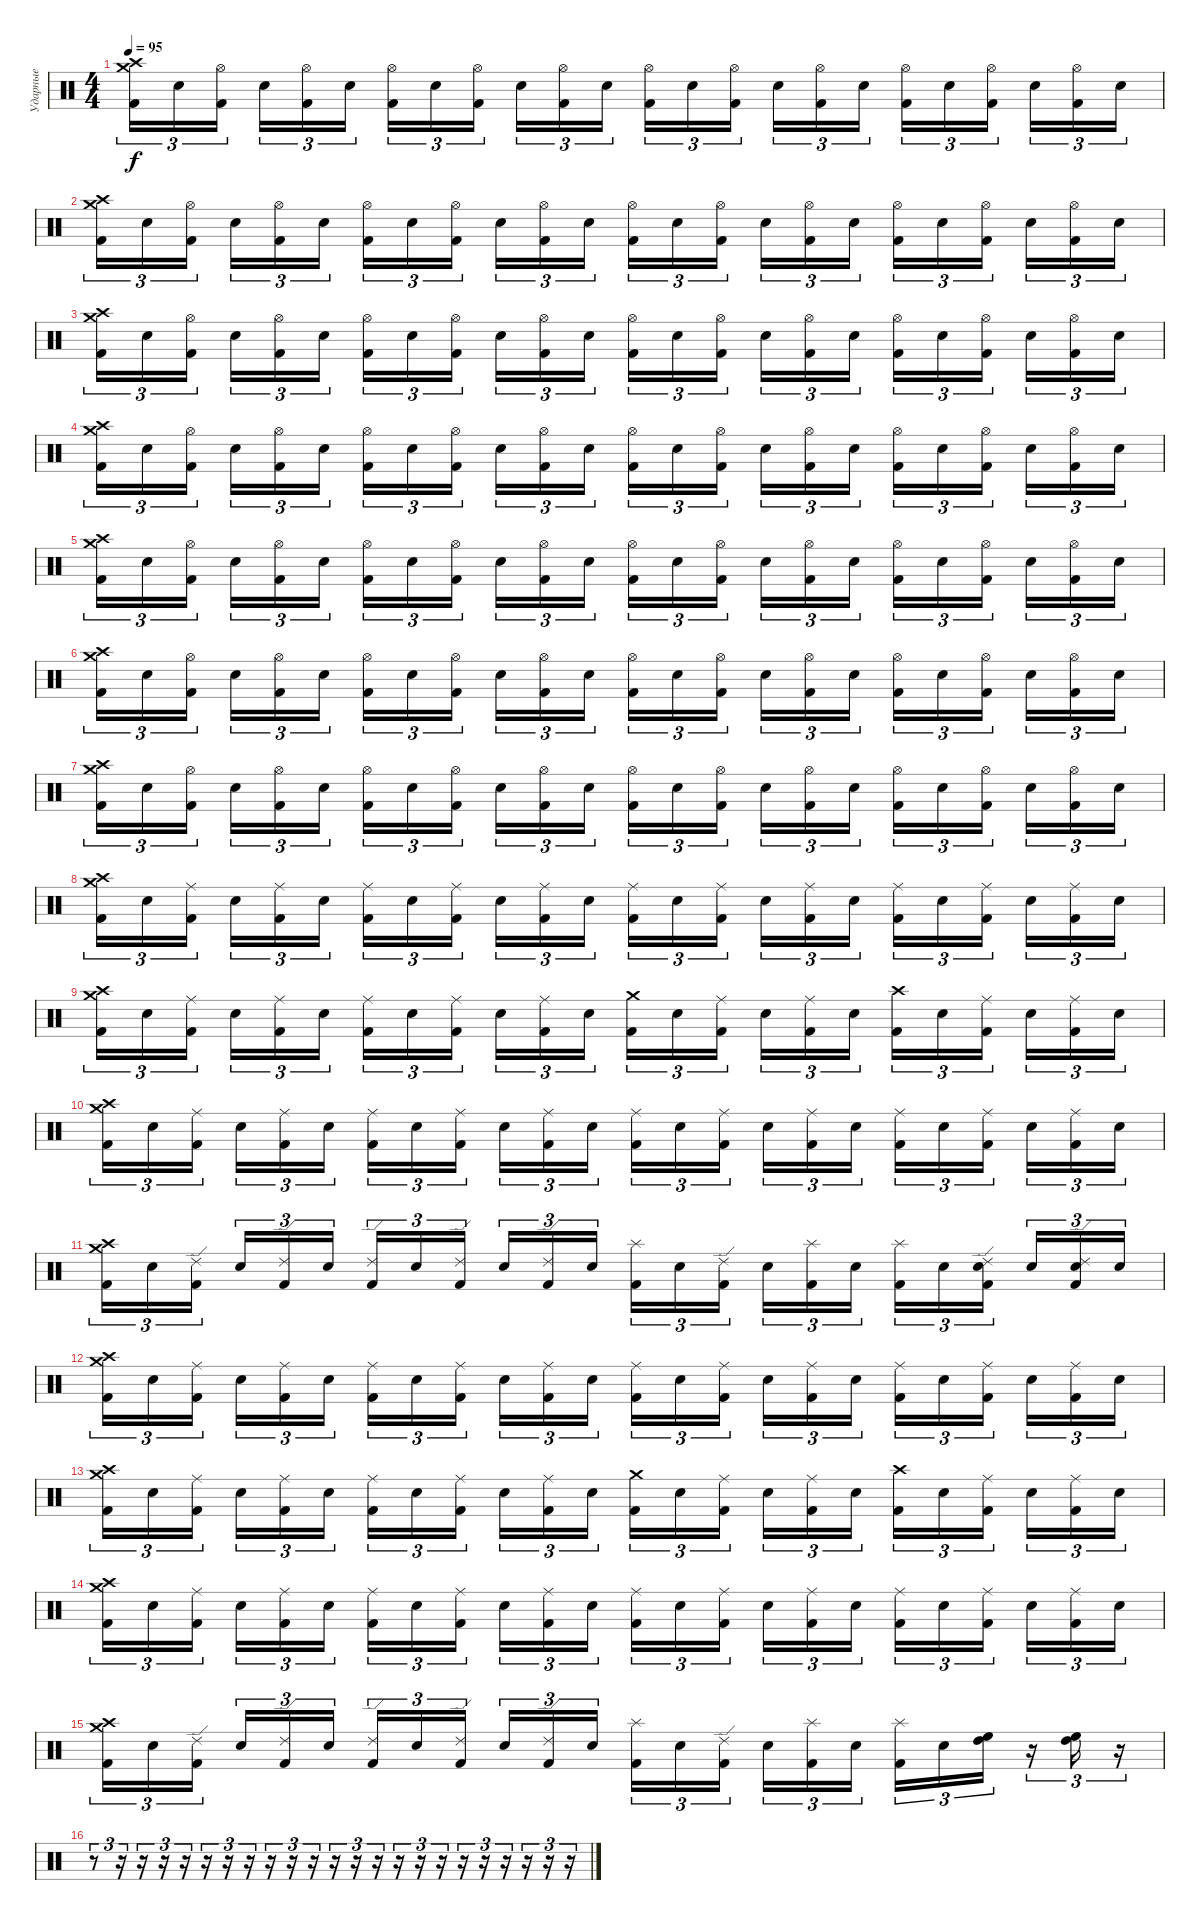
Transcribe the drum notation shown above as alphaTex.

\track ("Ударные" "Ударные") {instrument percussion}
\staff {score}
\articulation defaults
\ts (4 4)
\tempo 95
\clef neutral
\ks c
("Crash medium (hit)" "Crash high (hit)" "Kick (hit) 2").16{tu (3 2) dy f} "Electric Snare (hit)".16{tu (3 2)} ("Hi-Hat (open)" "Kick (hit) 2").16{tu (3 2) beam splitsecondary} "Electric Snare (hit)".16{tu (3 2)} ("Hi-Hat (open)" "Kick (hit) 2").16{tu (3 2)} "Electric Snare (hit)".16{tu (3 2)} ("Hi-Hat (open)" "Kick (hit) 2").16{tu (3 2)} "Electric Snare (hit)".16{tu (3 2)} ("Hi-Hat (open)" "Kick (hit) 2").16{tu (3 2) beam splitsecondary} "Electric Snare (hit)".16{tu (3 2)} ("Hi-Hat (open)" "Kick (hit) 2").16{tu (3 2)} "Electric Snare (hit)".16{tu (3 2)} ("Hi-Hat (open)" "Kick (hit) 2").16{tu (3 2)} "Electric Snare (hit)".16{tu (3 2)} ("Hi-Hat (open)" "Kick (hit) 2").16{tu (3 2) beam splitsecondary} "Electric Snare (hit)".16{tu (3 2)} ("Hi-Hat (open)" "Kick (hit) 2").16{tu (3 2)} "Electric Snare (hit)".16{tu (3 2)} ("Hi-Hat (open)" "Kick (hit) 2").16{tu (3 2)} "Electric Snare (hit)".16{tu (3 2)} ("Hi-Hat (open)" "Kick (hit) 2").16{tu (3 2) beam splitsecondary} "Electric Snare (hit)".16{tu (3 2)} ("Hi-Hat (open)" "Kick (hit) 2").16{tu (3 2)} "Electric Snare (hit)".16{tu (3 2)} |
("Crash medium (hit)" "Crash high (hit)" "Kick (hit) 2").16{tu (3 2)} "Electric Snare (hit)".16{tu (3 2)} ("Hi-Hat (open)" "Kick (hit) 2").16{tu (3 2) beam splitsecondary} "Electric Snare (hit)".16{tu (3 2)} ("Hi-Hat (open)" "Kick (hit) 2").16{tu (3 2)} "Electric Snare (hit)".16{tu (3 2)} ("Hi-Hat (open)" "Kick (hit) 2").16{tu (3 2)} "Electric Snare (hit)".16{tu (3 2)} ("Hi-Hat (open)" "Kick (hit) 2").16{tu (3 2) beam splitsecondary} "Electric Snare (hit)".16{tu (3 2)} ("Hi-Hat (open)" "Kick (hit) 2").16{tu (3 2)} "Electric Snare (hit)".16{tu (3 2)} ("Hi-Hat (open)" "Kick (hit) 2").16{tu (3 2)} "Electric Snare (hit)".16{tu (3 2)} ("Hi-Hat (open)" "Kick (hit) 2").16{tu (3 2) beam splitsecondary} "Electric Snare (hit)".16{tu (3 2)} ("Hi-Hat (open)" "Kick (hit) 2").16{tu (3 2)} "Electric Snare (hit)".16{tu (3 2)} ("Hi-Hat (open)" "Kick (hit) 2").16{tu (3 2)} "Electric Snare (hit)".16{tu (3 2)} ("Hi-Hat (open)" "Kick (hit) 2").16{tu (3 2) beam splitsecondary} "Electric Snare (hit)".16{tu (3 2)} ("Hi-Hat (open)" "Kick (hit) 2").16{tu (3 2)} "Electric Snare (hit)".16{tu (3 2)} |
("Crash medium (hit)" "Crash high (hit)" "Kick (hit) 2").16{tu (3 2)} "Electric Snare (hit)".16{tu (3 2)} ("Hi-Hat (open)" "Kick (hit) 2").16{tu (3 2) beam splitsecondary} "Electric Snare (hit)".16{tu (3 2)} ("Hi-Hat (open)" "Kick (hit) 2").16{tu (3 2)} "Electric Snare (hit)".16{tu (3 2)} ("Hi-Hat (open)" "Kick (hit) 2").16{tu (3 2)} "Electric Snare (hit)".16{tu (3 2)} ("Hi-Hat (open)" "Kick (hit) 2").16{tu (3 2) beam splitsecondary} "Electric Snare (hit)".16{tu (3 2)} ("Hi-Hat (open)" "Kick (hit) 2").16{tu (3 2)} "Electric Snare (hit)".16{tu (3 2)} ("Hi-Hat (open)" "Kick (hit) 2").16{tu (3 2)} "Electric Snare (hit)".16{tu (3 2)} ("Hi-Hat (open)" "Kick (hit) 2").16{tu (3 2) beam splitsecondary} "Electric Snare (hit)".16{tu (3 2)} ("Hi-Hat (open)" "Kick (hit) 2").16{tu (3 2)} "Electric Snare (hit)".16{tu (3 2)} ("Hi-Hat (open)" "Kick (hit) 2").16{tu (3 2)} "Electric Snare (hit)".16{tu (3 2)} ("Hi-Hat (open)" "Kick (hit) 2").16{tu (3 2) beam splitsecondary} "Electric Snare (hit)".16{tu (3 2)} ("Hi-Hat (open)" "Kick (hit) 2").16{tu (3 2)} "Electric Snare (hit)".16{tu (3 2)} |
("Crash medium (hit)" "Crash high (hit)" "Kick (hit) 2").16{tu (3 2)} "Electric Snare (hit)".16{tu (3 2)} ("Hi-Hat (open)" "Kick (hit) 2").16{tu (3 2) beam splitsecondary} "Electric Snare (hit)".16{tu (3 2)} ("Hi-Hat (open)" "Kick (hit) 2").16{tu (3 2)} "Electric Snare (hit)".16{tu (3 2)} ("Hi-Hat (open)" "Kick (hit) 2").16{tu (3 2)} "Electric Snare (hit)".16{tu (3 2)} ("Hi-Hat (open)" "Kick (hit) 2").16{tu (3 2) beam splitsecondary} "Electric Snare (hit)".16{tu (3 2)} ("Hi-Hat (open)" "Kick (hit) 2").16{tu (3 2)} "Electric Snare (hit)".16{tu (3 2)} ("Hi-Hat (open)" "Kick (hit) 2").16{tu (3 2)} "Electric Snare (hit)".16{tu (3 2)} ("Hi-Hat (open)" "Kick (hit) 2").16{tu (3 2) beam splitsecondary} "Electric Snare (hit)".16{tu (3 2)} ("Hi-Hat (open)" "Kick (hit) 2").16{tu (3 2)} "Electric Snare (hit)".16{tu (3 2)} ("Hi-Hat (open)" "Kick (hit) 2").16{tu (3 2)} "Electric Snare (hit)".16{tu (3 2)} ("Hi-Hat (open)" "Kick (hit) 2").16{tu (3 2) beam splitsecondary} "Electric Snare (hit)".16{tu (3 2)} ("Hi-Hat (open)" "Kick (hit) 2").16{tu (3 2)} "Electric Snare (hit)".16{tu (3 2)} |
("Crash medium (hit)" "Crash high (hit)" "Kick (hit) 2").16{tu (3 2)} "Electric Snare (hit)".16{tu (3 2)} ("Hi-Hat (open)" "Kick (hit) 2").16{tu (3 2) beam splitsecondary} "Electric Snare (hit)".16{tu (3 2)} ("Hi-Hat (open)" "Kick (hit) 2").16{tu (3 2)} "Electric Snare (hit)".16{tu (3 2)} ("Hi-Hat (open)" "Kick (hit) 2").16{tu (3 2)} "Electric Snare (hit)".16{tu (3 2)} ("Hi-Hat (open)" "Kick (hit) 2").16{tu (3 2) beam splitsecondary} "Electric Snare (hit)".16{tu (3 2)} ("Hi-Hat (open)" "Kick (hit) 2").16{tu (3 2)} "Electric Snare (hit)".16{tu (3 2)} ("Hi-Hat (open)" "Kick (hit) 2").16{tu (3 2)} "Electric Snare (hit)".16{tu (3 2)} ("Hi-Hat (open)" "Kick (hit) 2").16{tu (3 2) beam splitsecondary} "Electric Snare (hit)".16{tu (3 2)} ("Hi-Hat (open)" "Kick (hit) 2").16{tu (3 2)} "Electric Snare (hit)".16{tu (3 2)} ("Hi-Hat (open)" "Kick (hit) 2").16{tu (3 2)} "Electric Snare (hit)".16{tu (3 2)} ("Hi-Hat (open)" "Kick (hit) 2").16{tu (3 2) beam splitsecondary} "Electric Snare (hit)".16{tu (3 2)} ("Hi-Hat (open)" "Kick (hit) 2").16{tu (3 2)} "Electric Snare (hit)".16{tu (3 2)} |
("Crash medium (hit)" "Crash high (hit)" "Kick (hit) 2").16{tu (3 2)} "Electric Snare (hit)".16{tu (3 2)} ("Hi-Hat (open)" "Kick (hit) 2").16{tu (3 2) beam splitsecondary} "Electric Snare (hit)".16{tu (3 2)} ("Hi-Hat (open)" "Kick (hit) 2").16{tu (3 2)} "Electric Snare (hit)".16{tu (3 2)} ("Hi-Hat (open)" "Kick (hit) 2").16{tu (3 2)} "Electric Snare (hit)".16{tu (3 2)} ("Hi-Hat (open)" "Kick (hit) 2").16{tu (3 2) beam splitsecondary} "Electric Snare (hit)".16{tu (3 2)} ("Hi-Hat (open)" "Kick (hit) 2").16{tu (3 2)} "Electric Snare (hit)".16{tu (3 2)} ("Hi-Hat (open)" "Kick (hit) 2").16{tu (3 2)} "Electric Snare (hit)".16{tu (3 2)} ("Hi-Hat (open)" "Kick (hit) 2").16{tu (3 2) beam splitsecondary} "Electric Snare (hit)".16{tu (3 2)} ("Hi-Hat (open)" "Kick (hit) 2").16{tu (3 2)} "Electric Snare (hit)".16{tu (3 2)} ("Hi-Hat (open)" "Kick (hit) 2").16{tu (3 2)} "Electric Snare (hit)".16{tu (3 2)} ("Hi-Hat (open)" "Kick (hit) 2").16{tu (3 2) beam splitsecondary} "Electric Snare (hit)".16{tu (3 2)} ("Hi-Hat (open)" "Kick (hit) 2").16{tu (3 2)} "Electric Snare (hit)".16{tu (3 2)} |
("Crash medium (hit)" "Crash high (hit)" "Kick (hit) 2").16{tu (3 2)} "Electric Snare (hit)".16{tu (3 2)} ("Hi-Hat (open)" "Kick (hit) 2").16{tu (3 2) beam splitsecondary} "Electric Snare (hit)".16{tu (3 2)} ("Hi-Hat (open)" "Kick (hit) 2").16{tu (3 2)} "Electric Snare (hit)".16{tu (3 2)} ("Hi-Hat (open)" "Kick (hit) 2").16{tu (3 2)} "Electric Snare (hit)".16{tu (3 2)} ("Hi-Hat (open)" "Kick (hit) 2").16{tu (3 2) beam splitsecondary} "Electric Snare (hit)".16{tu (3 2)} ("Hi-Hat (open)" "Kick (hit) 2").16{tu (3 2)} "Electric Snare (hit)".16{tu (3 2)} ("Hi-Hat (open)" "Kick (hit) 2").16{tu (3 2)} "Electric Snare (hit)".16{tu (3 2)} ("Hi-Hat (open)" "Kick (hit) 2").16{tu (3 2) beam splitsecondary} "Electric Snare (hit)".16{tu (3 2)} ("Hi-Hat (open)" "Kick (hit) 2").16{tu (3 2)} "Electric Snare (hit)".16{tu (3 2)} ("Hi-Hat (open)" "Kick (hit) 2").16{tu (3 2)} "Electric Snare (hit)".16{tu (3 2)} ("Hi-Hat (open)" "Kick (hit) 2").16{tu (3 2) beam splitsecondary} "Electric Snare (hit)".16{tu (3 2)} ("Hi-Hat (open)" "Kick (hit) 2").16{tu (3 2)} "Electric Snare (hit)".16{tu (3 2)} |
("Crash medium (hit)" "Crash high (hit)" "Kick (hit) 2").16{tu (3 2)} "Electric Snare (hit)".16{tu (3 2)} ("Ride (middle)" "Kick (hit) 2").16{tu (3 2) beam splitsecondary} "Electric Snare (hit)".16{tu (3 2)} ("Ride (middle)" "Kick (hit) 2").16{tu (3 2)} "Electric Snare (hit)".16{tu (3 2)} ("Ride (middle)" "Kick (hit) 2").16{tu (3 2)} "Electric Snare (hit)".16{tu (3 2)} ("Ride (middle)" "Kick (hit) 2").16{tu (3 2) beam splitsecondary} "Electric Snare (hit)".16{tu (3 2)} ("Ride (middle)" "Kick (hit) 2").16{tu (3 2)} "Electric Snare (hit)".16{tu (3 2)} ("Ride (middle)" "Kick (hit) 2").16{tu (3 2)} "Electric Snare (hit)".16{tu (3 2)} ("Ride (middle)" "Kick (hit) 2").16{tu (3 2) beam splitsecondary} "Electric Snare (hit)".16{tu (3 2)} ("Ride (middle)" "Kick (hit) 2").16{tu (3 2)} "Electric Snare (hit)".16{tu (3 2)} ("Ride (middle)" "Kick (hit) 2").16{tu (3 2)} "Electric Snare (hit)".16{tu (3 2)} ("Ride (middle)" "Kick (hit) 2").16{tu (3 2) beam splitsecondary} "Electric Snare (hit)".16{tu (3 2)} ("Ride (middle)" "Kick (hit) 2").16{tu (3 2)} "Electric Snare (hit)".16{tu (3 2)} |
("Crash medium (hit)" "Crash high (hit)" "Kick (hit) 2").16{tu (3 2)} "Electric Snare (hit)".16{tu (3 2)} ("Ride (middle)" "Kick (hit) 2").16{tu (3 2) beam splitsecondary} "Electric Snare (hit)".16{tu (3 2)} ("Ride (middle)" "Kick (hit) 2").16{tu (3 2)} "Electric Snare (hit)".16{tu (3 2)} ("Ride (middle)" "Kick (hit) 2").16{tu (3 2)} "Electric Snare (hit)".16{tu (3 2)} ("Ride (middle)" "Kick (hit) 2").16{tu (3 2) beam splitsecondary} "Electric Snare (hit)".16{tu (3 2)} ("Ride (middle)" "Kick (hit) 2").16{tu (3 2)} "Electric Snare (hit)".16{tu (3 2)} ("Crash medium (hit)" "Kick (hit) 2").16{tu (3 2)} "Electric Snare (hit)".16{tu (3 2)} ("Ride (middle)" "Kick (hit) 2").16{tu (3 2) beam splitsecondary} "Electric Snare (hit)".16{tu (3 2)} ("Ride (middle)" "Kick (hit) 2").16{tu (3 2)} "Electric Snare (hit)".16{tu (3 2)} ("Crash high (hit)" "Kick (hit) 2").16{tu (3 2)} "Electric Snare (hit)".16{tu (3 2)} ("Ride (middle)" "Kick (hit) 2").16{tu (3 2) beam splitsecondary} "Electric Snare (hit)".16{tu (3 2)} ("Ride (middle)" "Kick (hit) 2").16{tu (3 2)} "Electric Snare (hit)".16{tu (3 2)} |
("Crash medium (hit)" "Crash high (hit)" "Kick (hit) 2").16{tu (3 2)} "Electric Snare (hit)".16{tu (3 2)} ("Ride (middle)" "Kick (hit) 2").16{tu (3 2) beam splitsecondary} "Electric Snare (hit)".16{tu (3 2)} ("Ride (middle)" "Kick (hit) 2").16{tu (3 2)} "Electric Snare (hit)".16{tu (3 2)} ("Ride (middle)" "Kick (hit) 2").16{tu (3 2)} "Electric Snare (hit)".16{tu (3 2)} ("Ride (middle)" "Kick (hit) 2").16{tu (3 2) beam splitsecondary} "Electric Snare (hit)".16{tu (3 2)} ("Ride (middle)" "Kick (hit) 2").16{tu (3 2)} "Electric Snare (hit)".16{tu (3 2)} ("Ride (middle)" "Kick (hit) 2").16{tu (3 2)} "Electric Snare (hit)".16{tu (3 2)} ("Ride (middle)" "Kick (hit) 2").16{tu (3 2) beam splitsecondary} "Electric Snare (hit)".16{tu (3 2)} ("Ride (middle)" "Kick (hit) 2").16{tu (3 2)} "Electric Snare (hit)".16{tu (3 2)} ("Ride (middle)" "Kick (hit) 2").16{tu (3 2)} "Electric Snare (hit)".16{tu (3 2)} ("Ride (middle)" "Kick (hit) 2").16{tu (3 2) beam splitsecondary} "Electric Snare (hit)".16{tu (3 2)} ("Ride (middle)" "Kick (hit) 2").16{tu (3 2)} "Electric Snare (hit)".16{tu (3 2)} |
("Crash medium (hit)" "Crash high (hit)" "Kick (hit) 2").16{tu (3 2)} "Electric Snare (hit)".16{tu (3 2)} ("Ride (edge) 2" "Kick (hit) 2").16{tu (3 2) beam splitsecondary} "Electric Snare (hit)".16{tu (3 2)} ("Ride (edge) 2" "Kick (hit) 2").16{tu (3 2)} "Electric Snare (hit)".16{tu (3 2)} ("Ride (edge) 2" "Kick (hit) 2").16{tu (3 2)} "Electric Snare (hit)".16{tu (3 2)} ("Ride (edge) 2" "Kick (hit) 2").16{tu (3 2) beam splitsecondary} "Electric Snare (hit)".16{tu (3 2)} ("Ride (edge) 2" "Kick (hit) 2").16{tu (3 2)} "Electric Snare (hit)".16{tu (3 2)} ("Splash (hit)" "Kick (hit) 2").16{tu (3 2)} "Electric Snare (hit)".16{tu (3 2)} ("Ride (edge) 2" "Kick (hit) 2").16{tu (3 2) beam splitsecondary} "Electric Snare (hit)".16{tu (3 2)} ("Splash (hit)" "Kick (hit) 2").16{tu (3 2)} "Electric Snare (hit)".16{tu (3 2)} ("Splash (hit)" "Kick (hit) 2").16{tu (3 2)} "Electric Snare (hit)".16{tu (3 2)} ("Ride (edge) 2" "Electric Snare (hit)" "Kick (hit) 2").16{tu (3 2) beam splitsecondary} "Electric Snare (hit)".16{tu (3 2)} ("Ride (edge) 2" "Electric Snare (hit)" "Kick (hit) 2").16{tu (3 2)} "Electric Snare (hit)".16{tu (3 2)} |
("Crash medium (hit)" "Crash high (hit)" "Kick (hit) 2").16{tu (3 2)} "Electric Snare (hit)".16{tu (3 2)} ("Ride (middle)" "Kick (hit) 2").16{tu (3 2) beam splitsecondary} "Electric Snare (hit)".16{tu (3 2)} ("Ride (middle)" "Kick (hit) 2").16{tu (3 2)} "Electric Snare (hit)".16{tu (3 2)} ("Ride (middle)" "Kick (hit) 2").16{tu (3 2)} "Electric Snare (hit)".16{tu (3 2)} ("Ride (middle)" "Kick (hit) 2").16{tu (3 2) beam splitsecondary} "Electric Snare (hit)".16{tu (3 2)} ("Ride (middle)" "Kick (hit) 2").16{tu (3 2)} "Electric Snare (hit)".16{tu (3 2)} ("Ride (middle)" "Kick (hit) 2").16{tu (3 2)} "Electric Snare (hit)".16{tu (3 2)} ("Ride (middle)" "Kick (hit) 2").16{tu (3 2) beam splitsecondary} "Electric Snare (hit)".16{tu (3 2)} ("Ride (middle)" "Kick (hit) 2").16{tu (3 2)} "Electric Snare (hit)".16{tu (3 2)} ("Ride (middle)" "Kick (hit) 2").16{tu (3 2)} "Electric Snare (hit)".16{tu (3 2)} ("Ride (middle)" "Kick (hit) 2").16{tu (3 2) beam splitsecondary} "Electric Snare (hit)".16{tu (3 2)} ("Ride (middle)" "Kick (hit) 2").16{tu (3 2)} "Electric Snare (hit)".16{tu (3 2)} |
("Crash medium (hit)" "Crash high (hit)" "Kick (hit) 2").16{tu (3 2)} "Electric Snare (hit)".16{tu (3 2)} ("Ride (middle)" "Kick (hit) 2").16{tu (3 2) beam splitsecondary} "Electric Snare (hit)".16{tu (3 2)} ("Ride (middle)" "Kick (hit) 2").16{tu (3 2)} "Electric Snare (hit)".16{tu (3 2)} ("Ride (middle)" "Kick (hit) 2").16{tu (3 2)} "Electric Snare (hit)".16{tu (3 2)} ("Ride (middle)" "Kick (hit) 2").16{tu (3 2) beam splitsecondary} "Electric Snare (hit)".16{tu (3 2)} ("Ride (middle)" "Kick (hit) 2").16{tu (3 2)} "Electric Snare (hit)".16{tu (3 2)} ("Crash medium (hit)" "Kick (hit) 2").16{tu (3 2)} "Electric Snare (hit)".16{tu (3 2)} ("Ride (middle)" "Kick (hit) 2").16{tu (3 2) beam splitsecondary} "Electric Snare (hit)".16{tu (3 2)} ("Ride (middle)" "Kick (hit) 2").16{tu (3 2)} "Electric Snare (hit)".16{tu (3 2)} ("Crash high (hit)" "Kick (hit) 2").16{tu (3 2)} "Electric Snare (hit)".16{tu (3 2)} ("Ride (middle)" "Kick (hit) 2").16{tu (3 2) beam splitsecondary} "Electric Snare (hit)".16{tu (3 2)} ("Ride (middle)" "Kick (hit) 2").16{tu (3 2)} "Electric Snare (hit)".16{tu (3 2)} |
("Crash medium (hit)" "Crash high (hit)" "Kick (hit) 2").16{tu (3 2)} "Electric Snare (hit)".16{tu (3 2)} ("Ride (middle)" "Kick (hit) 2").16{tu (3 2) beam splitsecondary} "Electric Snare (hit)".16{tu (3 2)} ("Ride (middle)" "Kick (hit) 2").16{tu (3 2)} "Electric Snare (hit)".16{tu (3 2)} ("Ride (middle)" "Kick (hit) 2").16{tu (3 2)} "Electric Snare (hit)".16{tu (3 2)} ("Ride (middle)" "Kick (hit) 2").16{tu (3 2) beam splitsecondary} "Electric Snare (hit)".16{tu (3 2)} ("Ride (middle)" "Kick (hit) 2").16{tu (3 2)} "Electric Snare (hit)".16{tu (3 2)} ("Ride (middle)" "Kick (hit) 2").16{tu (3 2)} "Electric Snare (hit)".16{tu (3 2)} ("Ride (middle)" "Kick (hit) 2").16{tu (3 2) beam splitsecondary} "Electric Snare (hit)".16{tu (3 2)} ("Ride (middle)" "Kick (hit) 2").16{tu (3 2)} "Electric Snare (hit)".16{tu (3 2)} ("Ride (middle)" "Kick (hit) 2").16{tu (3 2)} "Electric Snare (hit)".16{tu (3 2)} ("Ride (middle)" "Kick (hit) 2").16{tu (3 2) beam splitsecondary} "Electric Snare (hit)".16{tu (3 2)} ("Ride (middle)" "Kick (hit) 2").16{tu (3 2)} "Electric Snare (hit)".16{tu (3 2)} |
("Crash medium (hit)" "Crash high (hit)" "Kick (hit) 2").16{tu (3 2)} "Electric Snare (hit)".16{tu (3 2)} ("Ride (edge) 2" "Kick (hit) 2").16{tu (3 2) beam splitsecondary} "Electric Snare (hit)".16{tu (3 2)} ("Ride (edge) 2" "Kick (hit) 2").16{tu (3 2)} "Electric Snare (hit)".16{tu (3 2)} ("Ride (edge) 2" "Kick (hit) 2").16{tu (3 2)} "Electric Snare (hit)".16{tu (3 2)} ("Ride (edge) 2" "Kick (hit) 2").16{tu (3 2) beam splitsecondary} "Electric Snare (hit)".16{tu (3 2)} ("Ride (edge) 2" "Kick (hit) 2").16{tu (3 2)} "Electric Snare (hit)".16{tu (3 2)} ("Splash (hit)" "Kick (hit) 2").16{tu (3 2)} "Electric Snare (hit)".16{tu (3 2)} ("Ride (edge) 2" "Kick (hit) 2").16{tu (3 2) beam splitsecondary} "Electric Snare (hit)".16{tu (3 2)} ("Splash (hit)" "Kick (hit) 2").16{tu (3 2)} "Electric Snare (hit)".16{tu (3 2)} ("Splash (hit)" "Kick (hit) 2").16{tu (3 2)} "Electric Snare (hit)".16{tu (3 2)} ("High Tom (hit)" "High Floor Tom (hit)").16{tu (3 2)} r.16{tu (3 2)} ("High Tom (hit)" "High Floor Tom (hit)").16{tu (3 2)} r.16{tu (3 2)} |
r.8{tu (3 2)} r.16{tu (3 2)} r.16{tu (3 2)} r.16{tu (3 2)} r.16{tu (3 2)} r.16{tu (3 2)} r.16{tu (3 2)} r.16{tu (3 2)} r.16{tu (3 2)} r.16{tu (3 2)} r.16{tu (3 2)} r.16{tu (3 2)} r.16{tu (3 2)} r.16{tu (3 2)} r.16{tu (3 2)} r.16{tu (3 2)} r.16{tu (3 2)} r.16{tu (3 2)} r.16{tu (3 2)} r.16{tu (3 2)} r.16{tu (3 2)} r.16{tu (3 2)} r.16{tu (3 2)}
